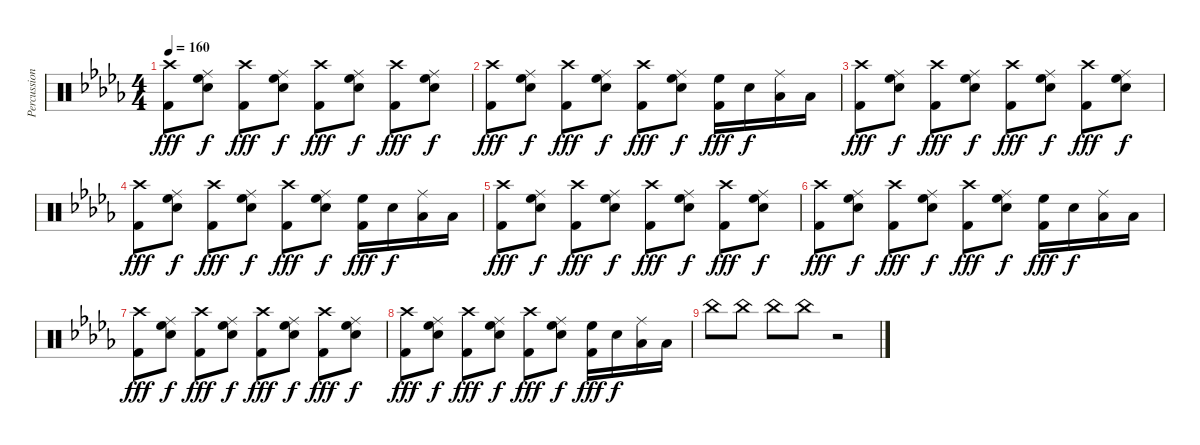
\track ("Percussions" "Percussion") {instrument percussion}
\staff {score}
\articulation defaults
\ts (4 4)
\tempo 160
\clef neutral
\ks db
("Crash high (hit)" "Kick (hit) 2").8{dy fff} ("High Floor Tom (hit)" "Ride (middle)" "Snare (hit) 2").8{dy f} ("Crash high (hit)" "Kick (hit) 2").8{dy fff} ("High Floor Tom (hit)" "Ride (middle)" "Snare (hit) 2").8{dy f} ("Crash high (hit)" "Kick (hit) 2").8{dy fff} ("High Floor Tom (hit)" "Ride (middle)" "Snare (hit) 2").8{dy f} ("Crash high (hit)" "Kick (hit) 2").8{dy fff} ("High Floor Tom (hit)" "Ride (middle)" "Snare (hit) 2").8{dy f} |
("Crash high (hit)" "Kick (hit) 2").8{dy fff} ("High Floor Tom (hit)" "Ride (middle)" "Snare (hit) 2").8{dy f} ("Crash high (hit)" "Kick (hit) 2").8{dy fff} ("High Floor Tom (hit)" "Ride (middle)" "Snare (hit) 2").8{dy f} ("Crash high (hit)" "Kick (hit) 2").8{dy fff} ("High Floor Tom (hit)" "Ride (middle)" "Snare (hit) 2").8{dy f} ("High Floor Tom (hit)" "Kick (hit) 2").16{dy fff} "Snare (hit) 2".16{dy f} ("Low Tom (hit)" "Ride (middle)").16 "Low Floor Tom (hit)".16 |
("Crash high (hit)" "Kick (hit) 2").8{dy fff} ("High Floor Tom (hit)" "Ride (middle)" "Snare (hit) 2").8{dy f} ("Crash high (hit)" "Kick (hit) 2").8{dy fff} ("High Floor Tom (hit)" "Ride (middle)" "Snare (hit) 2").8{dy f} ("Crash high (hit)" "Kick (hit) 2").8{dy fff} ("High Floor Tom (hit)" "Ride (middle)" "Snare (hit) 2").8{dy f} ("Crash high (hit)" "Kick (hit) 2").8{dy fff} ("High Floor Tom (hit)" "Ride (middle)" "Snare (hit) 2").8{dy f} |
("Crash high (hit)" "Kick (hit) 2").8{dy fff} ("High Floor Tom (hit)" "Ride (middle)" "Snare (hit) 2").8{dy f} ("Crash high (hit)" "Kick (hit) 2").8{dy fff} ("High Floor Tom (hit)" "Ride (middle)" "Snare (hit) 2").8{dy f} ("Crash high (hit)" "Kick (hit) 2").8{dy fff} ("High Floor Tom (hit)" "Ride (middle)" "Snare (hit) 2").8{dy f} ("High Floor Tom (hit)" "Kick (hit) 2").16{dy fff} "Snare (hit) 2".16{dy f} ("Low Tom (hit)" "Ride (middle)").16 "Low Floor Tom (hit)".16 |
("Crash high (hit)" "Kick (hit) 2").8{dy fff} ("High Floor Tom (hit)" "Ride (middle)" "Snare (hit) 2").8{dy f} ("Crash high (hit)" "Kick (hit) 2").8{dy fff} ("High Floor Tom (hit)" "Ride (middle)" "Snare (hit) 2").8{dy f} ("Crash high (hit)" "Kick (hit) 2").8{dy fff} ("High Floor Tom (hit)" "Ride (middle)" "Snare (hit) 2").8{dy f} ("Crash high (hit)" "Kick (hit) 2").8{dy fff} ("High Floor Tom (hit)" "Ride (middle)" "Snare (hit) 2").8{dy f} |
("Crash high (hit)" "Kick (hit) 2").8{dy fff} ("High Floor Tom (hit)" "Ride (middle)" "Snare (hit) 2").8{dy f} ("Crash high (hit)" "Kick (hit) 2").8{dy fff} ("High Floor Tom (hit)" "Ride (middle)" "Snare (hit) 2").8{dy f} ("Crash high (hit)" "Kick (hit) 2").8{dy fff} ("High Floor Tom (hit)" "Ride (middle)" "Snare (hit) 2").8{dy f} ("High Floor Tom (hit)" "Kick (hit) 2").16{dy fff} "Snare (hit) 2".16{dy f} ("Low Tom (hit)" "Ride (middle)").16 "Low Floor Tom (hit)".16 |
("Crash high (hit)" "Kick (hit) 2").8{dy fff} ("High Floor Tom (hit)" "Ride (middle)" "Snare (hit) 2").8{dy f} ("Crash high (hit)" "Kick (hit) 2").8{dy fff} ("High Floor Tom (hit)" "Ride (middle)" "Snare (hit) 2").8{dy f} ("Crash high (hit)" "Kick (hit) 2").8{dy fff} ("High Floor Tom (hit)" "Ride (middle)" "Snare (hit) 2").8{dy f} ("Crash high (hit)" "Kick (hit) 2").8{dy fff} ("High Floor Tom (hit)" "Ride (middle)" "Snare (hit) 2").8{dy f} |
("Crash high (hit)" "Kick (hit) 2").8{dy fff} ("High Floor Tom (hit)" "Ride (middle)" "Snare (hit) 2").8{dy f} ("Crash high (hit)" "Kick (hit) 2").8{dy fff} ("High Floor Tom (hit)" "Ride (middle)" "Snare (hit) 2").8{dy f} ("Crash high (hit)" "Kick (hit) 2").8{dy fff} ("High Floor Tom (hit)" "Ride (middle)" "Snare (hit) 2").8{dy f} ("High Floor Tom (hit)" "Kick (hit) 2").16{dy fff} "Snare (hit) 2".16{dy f} ("Low Tom (hit)" "Ride (middle)").16 "Low Floor Tom (hit)".16 |
"China (hit)".8 "China (hit)".8 "China (hit)".8 "China (hit)".8 r.2
